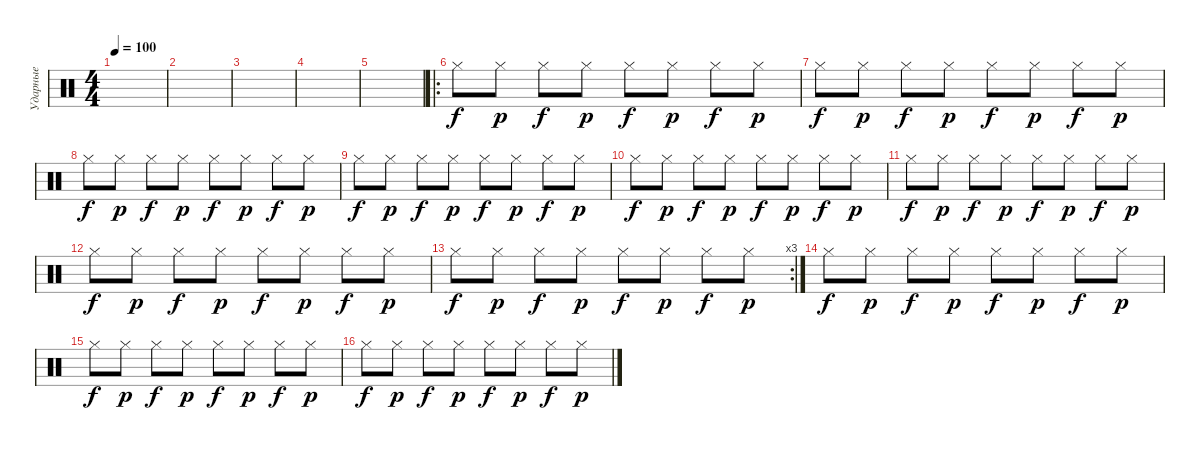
\track ("Ударные" "Ударные") {instrument percussion}
\staff {score}
\articulation defaults
\ts (4 4)
\tempo 100
\clef neutral
\ks c
|
|
|
|
|
\ro "Hi-Hat (closed)".8 "Hi-Hat (closed)".8{dy p} "Hi-Hat (closed)".8{dy f} "Hi-Hat (closed)".8{dy p} "Hi-Hat (closed)".8{dy f} "Hi-Hat (closed)".8{dy p} "Hi-Hat (closed)".8{dy f} "Hi-Hat (closed)".8{dy p}
|
"Hi-Hat (closed)".8{dy f} "Hi-Hat (closed)".8{dy p} "Hi-Hat (closed)".8{dy f} "Hi-Hat (closed)".8{dy p} "Hi-Hat (closed)".8{dy f} "Hi-Hat (closed)".8{dy p} "Hi-Hat (closed)".8{dy f} "Hi-Hat (closed)".8{dy p} |
"Hi-Hat (closed)".8{dy f} "Hi-Hat (closed)".8{dy p} "Hi-Hat (closed)".8{dy f} "Hi-Hat (closed)".8{dy p} "Hi-Hat (closed)".8{dy f} "Hi-Hat (closed)".8{dy p} "Hi-Hat (closed)".8{dy f} "Hi-Hat (closed)".8{dy p} |
"Hi-Hat (closed)".8{dy f} "Hi-Hat (closed)".8{dy p} "Hi-Hat (closed)".8{dy f} "Hi-Hat (closed)".8{dy p} "Hi-Hat (closed)".8{dy f} "Hi-Hat (closed)".8{dy p} "Hi-Hat (closed)".8{dy f} "Hi-Hat (closed)".8{dy p} |
"Hi-Hat (closed)".8{dy f} "Hi-Hat (closed)".8{dy p} "Hi-Hat (closed)".8{dy f} "Hi-Hat (closed)".8{dy p} "Hi-Hat (closed)".8{dy f} "Hi-Hat (closed)".8{dy p} "Hi-Hat (closed)".8{dy f} "Hi-Hat (closed)".8{dy p} |
"Hi-Hat (closed)".8{dy f} "Hi-Hat (closed)".8{dy p} "Hi-Hat (closed)".8{dy f} "Hi-Hat (closed)".8{dy p} "Hi-Hat (closed)".8{dy f} "Hi-Hat (closed)".8{dy p} "Hi-Hat (closed)".8{dy f} "Hi-Hat (closed)".8{dy p} |
"Hi-Hat (closed)".8{dy f} "Hi-Hat (closed)".8{dy p} "Hi-Hat (closed)".8{dy f} "Hi-Hat (closed)".8{dy p} "Hi-Hat (closed)".8{dy f} "Hi-Hat (closed)".8{dy p} "Hi-Hat (closed)".8{dy f} "Hi-Hat (closed)".8{dy p} |
\rc 3 "Hi-Hat (closed)".8{dy f} "Hi-Hat (closed)".8{dy p} "Hi-Hat (closed)".8{dy f} "Hi-Hat (closed)".8{dy p} "Hi-Hat (closed)".8{dy f} "Hi-Hat (closed)".8{dy p} "Hi-Hat (closed)".8{dy f} "Hi-Hat (closed)".8{dy p}
|
"Hi-Hat (closed)".8{dy f} "Hi-Hat (closed)".8{dy p} "Hi-Hat (closed)".8{dy f} "Hi-Hat (closed)".8{dy p} "Hi-Hat (closed)".8{dy f} "Hi-Hat (closed)".8{dy p} "Hi-Hat (closed)".8{dy f} "Hi-Hat (closed)".8{dy p} |
"Hi-Hat (closed)".8{dy f} "Hi-Hat (closed)".8{dy p} "Hi-Hat (closed)".8{dy f} "Hi-Hat (closed)".8{dy p} "Hi-Hat (closed)".8{dy f} "Hi-Hat (closed)".8{dy p} "Hi-Hat (closed)".8{dy f} "Hi-Hat (closed)".8{dy p} |
"Hi-Hat (closed)".8{dy f} "Hi-Hat (closed)".8{dy p} "Hi-Hat (closed)".8{dy f} "Hi-Hat (closed)".8{dy p} "Hi-Hat (closed)".8{dy f} "Hi-Hat (closed)".8{dy p} "Hi-Hat (closed)".8{dy f} "Hi-Hat (closed)".8{dy p}
